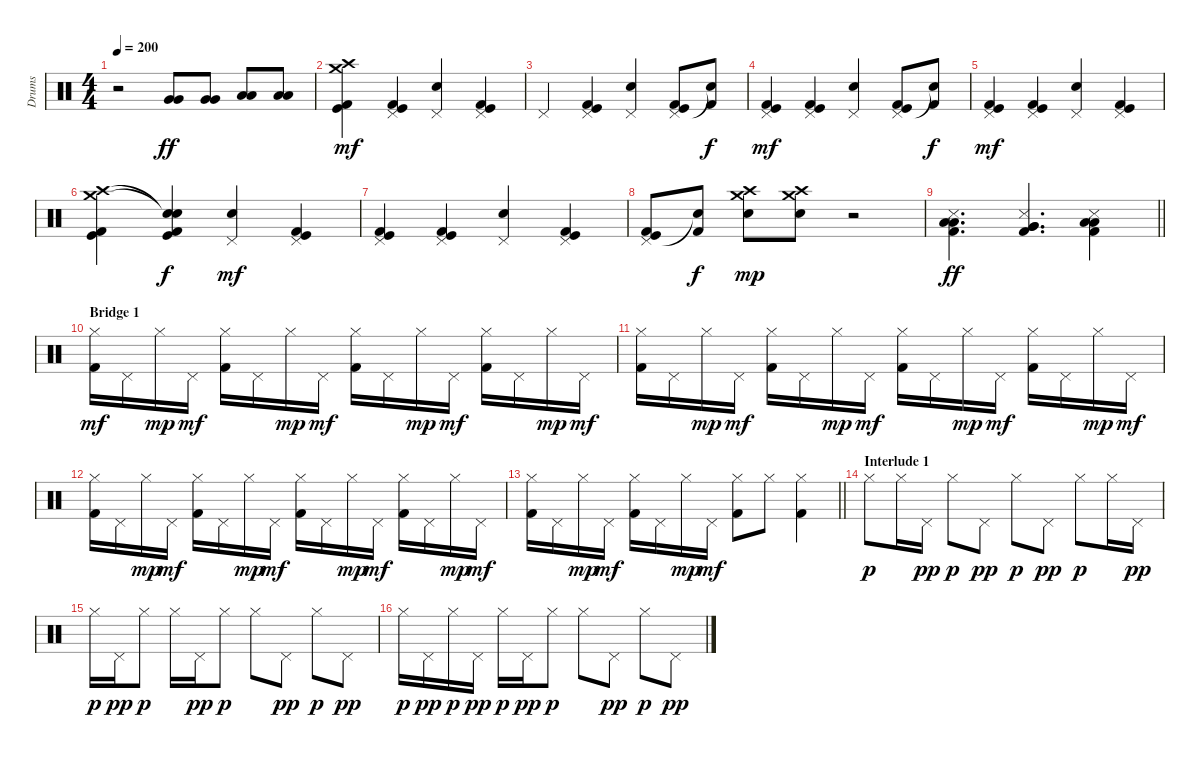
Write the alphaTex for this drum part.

\track ("Drums" "Drums") {instrument percussion}
\staff {score}
\articulation defaults
\ts (4 4)
\tempo 200
\clef neutral
\ks c
r.2{dy mp} ("Very Low Tom (hit)" "Very Low Tom (hit)").8{dy ff} ("Very Low Tom (hit)" "Very Low Tom (hit)").8 ("Low Tom (hit)" "Low Tom (hit)").8 ("Low Tom (hit)" "Low Tom (hit)").8 |
("Crash high (hit)" "Crash medium (hit)" "Kick (hit)" "Kick (hit) 2").4{dy mf} ("Pedal Hi-Hat (hit)" "Kick (hit)" "Kick (hit) 2").4 ("Pedal Hi-Hat (hit)" "Snare (hit) 2").4 ("Pedal Hi-Hat (hit)" "Kick (hit)" "Kick (hit) 2").4 |
"Pedal Hi-Hat (hit)".4 ("Pedal Hi-Hat (hit)" "Kick (hit)" "Kick (hit) 2").4 ("Pedal Hi-Hat (hit)" "Snare (hit) 2").4 ("Pedal Hi-Hat (hit)" "Kick (hit)" "Kick (hit) 2").8 ("Snare (hit)"{t} "Kick (hit) 2").8{dy f} |
("Pedal Hi-Hat (hit)" "Kick (hit)" "Kick (hit) 2").4{dy mf} ("Pedal Hi-Hat (hit)" "Kick (hit)" "Kick (hit) 2").4 ("Pedal Hi-Hat (hit)" "Snare (hit) 2").4 ("Pedal Hi-Hat (hit)" "Kick (hit)" "Kick (hit) 2").8 ("Snare (hit)"{t} "Kick (hit) 2").8{dy f} |
("Pedal Hi-Hat (hit)" "Kick (hit)" "Kick (hit) 2").4{dy mf} ("Pedal Hi-Hat (hit)" "Kick (hit)" "Kick (hit) 2").4 ("Pedal Hi-Hat (hit)" "Snare (hit) 2").4 ("Pedal Hi-Hat (hit)" "Kick (hit)" "Kick (hit) 2").4 |
("Crash high (hit)" "Crash medium (hit)" "Kick (hit)" "Kick (hit) 2").4 ("Snare (hit)"{t} "Snare (hit)"{t} "Kick (hit)" "Kick (hit) 2").4{dy f} ("Pedal Hi-Hat (hit)" "Snare (hit) 2").4{dy mf} ("Pedal Hi-Hat (hit)" "Kick (hit)" "Kick (hit) 2").4 |
("Pedal Hi-Hat (hit)" "Kick (hit)" "Kick (hit) 2").4 ("Pedal Hi-Hat (hit)" "Kick (hit)" "Kick (hit) 2").4 ("Pedal Hi-Hat (hit)" "Snare (hit) 2").4 ("Pedal Hi-Hat (hit)" "Kick (hit)" "Kick (hit) 2").4 |
("Pedal Hi-Hat (hit)" "Kick (hit)" "Kick (hit) 2").8 ("Snare (hit)"{t} "Kick (hit) 2").8{dy f} ("Crash high (hit)" "Crash medium (hit)" "Snare (hit) 2").8{dy mp} ("Crash high (hit)" "Crash medium (hit)" "Snare (hit) 2").8 r.2 |
\barLineRight lightlight
("Snare (side stick) 3" "Kick (hit) 2" "Low Tom (hit)" "Low Tom (hit)").4{d dy ff} ("Snare (side stick) 3" "Kick (hit) 2" "Very Low Tom (hit)" "Very Low Tom (hit)").4{d} ("Snare (side stick) 3" "Kick (hit) 2" "Low Tom (hit)" "Low Tom (hit)").4 |
\section ("" "Bridge 1")
("Hi-Hat (closed)" "Kick (hit) 2").16{dy mf} "Pedal Hi-Hat (hit)".16 "Hi-Hat (closed)".16{dy mp} "Pedal Hi-Hat (hit)".16{dy mf} ("Hi-Hat (closed)" "Kick (hit) 2").16 "Pedal Hi-Hat (hit)".16 "Hi-Hat (closed)".16{dy mp} "Pedal Hi-Hat (hit)".16{dy mf} ("Hi-Hat (closed)" "Kick (hit) 2").16 "Pedal Hi-Hat (hit)".16 "Hi-Hat (closed)".16{dy mp} "Pedal Hi-Hat (hit)".16{dy mf} ("Hi-Hat (closed)" "Kick (hit) 2").16 "Pedal Hi-Hat (hit)".16 "Hi-Hat (closed)".16{dy mp} "Pedal Hi-Hat (hit)".16{dy mf} |
("Hi-Hat (closed)" "Kick (hit) 2").16 "Pedal Hi-Hat (hit)".16 "Hi-Hat (closed)".16{dy mp} "Pedal Hi-Hat (hit)".16{dy mf} ("Hi-Hat (closed)" "Kick (hit) 2").16 "Pedal Hi-Hat (hit)".16 "Hi-Hat (closed)".16{dy mp} "Pedal Hi-Hat (hit)".16{dy mf} ("Hi-Hat (closed)" "Kick (hit) 2").16 "Pedal Hi-Hat (hit)".16 "Hi-Hat (closed)".16{dy mp} "Pedal Hi-Hat (hit)".16{dy mf} ("Hi-Hat (closed)" "Kick (hit) 2").16 "Pedal Hi-Hat (hit)".16 "Hi-Hat (closed)".16{dy mp} "Pedal Hi-Hat (hit)".16{dy mf} |
("Hi-Hat (closed)" "Kick (hit) 2").16 "Pedal Hi-Hat (hit)".16 "Hi-Hat (closed)".16{dy mp} "Pedal Hi-Hat (hit)".16{dy mf} ("Hi-Hat (closed)" "Kick (hit) 2").16 "Pedal Hi-Hat (hit)".16 "Hi-Hat (closed)".16{dy mp} "Pedal Hi-Hat (hit)".16{dy mf} ("Hi-Hat (closed)" "Kick (hit) 2").16 "Pedal Hi-Hat (hit)".16 "Hi-Hat (closed)".16{dy mp} "Pedal Hi-Hat (hit)".16{dy mf} ("Hi-Hat (closed)" "Kick (hit) 2").16 "Pedal Hi-Hat (hit)".16 "Hi-Hat (closed)".16{dy mp} "Pedal Hi-Hat (hit)".16{dy mf} |
\barLineRight lightlight
("Hi-Hat (closed)" "Kick (hit) 2").16 "Pedal Hi-Hat (hit)".16 "Hi-Hat (closed)".16{dy mp} "Pedal Hi-Hat (hit)".16{dy mf} ("Hi-Hat (closed)" "Kick (hit) 2").16 "Pedal Hi-Hat (hit)".16 "Hi-Hat (closed)".16{dy mp} "Pedal Hi-Hat (hit)".16{dy mf} ("Hi-Hat (closed)" "Kick (hit) 2").8 "Hi-Hat (closed)".8 ("Hi-Hat (closed)" "Kick (hit) 2").4 |
\section ("" "Interlude 1")
"Hi-Hat (closed)".8{dy p} "Hi-Hat (closed)".16 "Pedal Hi-Hat (hit)".16{dy pp} "Hi-Hat (closed)".8{dy p} "Pedal Hi-Hat (hit)".8{dy pp} "Hi-Hat (closed)".8{dy p} "Pedal Hi-Hat (hit)".8{dy pp} "Hi-Hat (closed)".8{dy p} "Hi-Hat (closed)".16 "Pedal Hi-Hat (hit)".16{dy pp} |
"Hi-Hat (closed)".16{dy p} "Pedal Hi-Hat (hit)".16{dy pp} "Hi-Hat (closed)".8{dy p} "Hi-Hat (closed)".16 "Pedal Hi-Hat (hit)".16{dy pp} "Hi-Hat (closed)".8{dy p} "Hi-Hat (closed)".8 "Pedal Hi-Hat (hit)".8{dy pp} "Hi-Hat (closed)".8{dy p} "Pedal Hi-Hat (hit)".8{dy pp} |
"Hi-Hat (closed)".16{dy p} "Pedal Hi-Hat (hit)".16{dy pp} "Hi-Hat (closed)".16{dy p} "Pedal Hi-Hat (hit)".16{dy pp} "Hi-Hat (closed)".16{dy p} "Pedal Hi-Hat (hit)".16{dy pp} "Hi-Hat (closed)".8{dy p} "Hi-Hat (closed)".8 "Pedal Hi-Hat (hit)".8{dy pp} "Hi-Hat (closed)".8{dy p} "Pedal Hi-Hat (hit)".8{dy pp}
